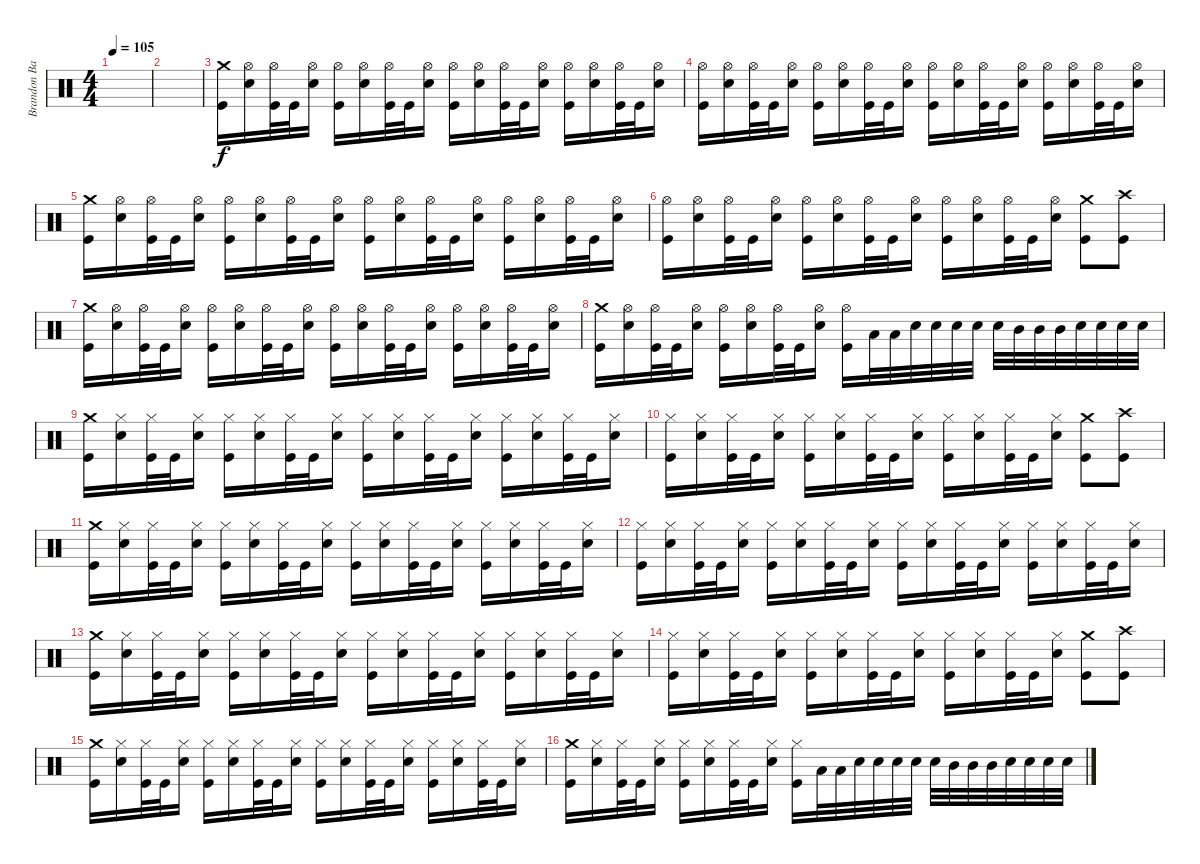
\track ("Brandon Barnes" "Brandon Ba") {instrument percussion}
\staff {score}
\articulation defaults
\ts (4 4)
\tempo 105
\clef neutral
\ks c
|
|
("Crash medium (hit)" "Kick (hit)").16 ("Hi-Hat (open)" "Electric Snare (hit)").16 ("Hi-Hat (open)" "Kick (hit)").32 "Kick (hit)".32 ("Hi-Hat (open)" "Electric Snare (hit)").16 ("Hi-Hat (open)" "Kick (hit)").16 ("Hi-Hat (open)" "Electric Snare (hit)").16 ("Hi-Hat (open)" "Kick (hit)").32 "Kick (hit)".32 ("Hi-Hat (open)" "Electric Snare (hit)").16 ("Hi-Hat (open)" "Kick (hit)").16 ("Hi-Hat (open)" "Electric Snare (hit)").16 ("Hi-Hat (open)" "Kick (hit)").32 "Kick (hit)".32 ("Hi-Hat (open)" "Electric Snare (hit)").16 ("Hi-Hat (open)" "Kick (hit)").16 ("Hi-Hat (open)" "Electric Snare (hit)").16 ("Hi-Hat (open)" "Kick (hit)").32 "Kick (hit)".32 ("Hi-Hat (open)" "Electric Snare (hit)").16 |
("Hi-Hat (open)" "Kick (hit)").16 ("Hi-Hat (open)" "Electric Snare (hit)").16 ("Hi-Hat (open)" "Kick (hit)").32 "Kick (hit)".32 ("Hi-Hat (open)" "Electric Snare (hit)").16 ("Hi-Hat (open)" "Kick (hit)").16 ("Hi-Hat (open)" "Electric Snare (hit)").16 ("Hi-Hat (open)" "Kick (hit)").32 "Kick (hit)".32 ("Hi-Hat (open)" "Electric Snare (hit)").16 ("Hi-Hat (open)" "Kick (hit)").16 ("Hi-Hat (open)" "Electric Snare (hit)").16 ("Hi-Hat (open)" "Kick (hit)").32 "Kick (hit)".32 ("Hi-Hat (open)" "Electric Snare (hit)").16 ("Hi-Hat (open)" "Kick (hit)").16 ("Hi-Hat (open)" "Electric Snare (hit)").16 ("Hi-Hat (open)" "Kick (hit)").32 "Kick (hit)".32 ("Hi-Hat (open)" "Electric Snare (hit)").16 |
("Crash medium (hit)" "Kick (hit)").16 ("Hi-Hat (open)" "Electric Snare (hit)").16 ("Hi-Hat (open)" "Kick (hit)").32 "Kick (hit)".32 ("Hi-Hat (open)" "Electric Snare (hit)").16 ("Hi-Hat (open)" "Kick (hit)").16 ("Hi-Hat (open)" "Electric Snare (hit)").16 ("Hi-Hat (open)" "Kick (hit)").32 "Kick (hit)".32 ("Hi-Hat (open)" "Electric Snare (hit)").16 ("Hi-Hat (open)" "Kick (hit)").16 ("Hi-Hat (open)" "Electric Snare (hit)").16 ("Hi-Hat (open)" "Kick (hit)").32 "Kick (hit)".32 ("Hi-Hat (open)" "Electric Snare (hit)").16 ("Hi-Hat (open)" "Kick (hit)").16 ("Hi-Hat (open)" "Electric Snare (hit)").16 ("Hi-Hat (open)" "Kick (hit)").32 "Kick (hit)".32 ("Hi-Hat (open)" "Electric Snare (hit)").16 |
("Hi-Hat (open)" "Kick (hit)").16 ("Hi-Hat (open)" "Electric Snare (hit)").16 ("Hi-Hat (open)" "Kick (hit)").32 "Kick (hit)".32 ("Hi-Hat (open)" "Electric Snare (hit)").16 ("Hi-Hat (open)" "Kick (hit)").16 ("Hi-Hat (open)" "Electric Snare (hit)").16 ("Hi-Hat (open)" "Kick (hit)").32 "Kick (hit)".32 ("Hi-Hat (open)" "Electric Snare (hit)").16 ("Hi-Hat (open)" "Kick (hit)").16 ("Hi-Hat (open)" "Electric Snare (hit)").16 ("Hi-Hat (open)" "Kick (hit)").32 "Kick (hit)".32 ("Hi-Hat (open)" "Electric Snare (hit)").16 ("Crash medium (hit)" "Kick (hit)").8 ("Crash high (hit)" "Kick (hit)").8 |
("Crash medium (hit)" "Kick (hit)").16 ("Hi-Hat (open)" "Electric Snare (hit)").16 ("Hi-Hat (open)" "Kick (hit)").32 "Kick (hit)".32 ("Hi-Hat (open)" "Electric Snare (hit)").16 ("Hi-Hat (open)" "Kick (hit)").16 ("Hi-Hat (open)" "Electric Snare (hit)").16 ("Hi-Hat (open)" "Kick (hit)").32 "Kick (hit)".32 ("Hi-Hat (open)" "Electric Snare (hit)").16 ("Hi-Hat (open)" "Kick (hit)").16 ("Hi-Hat (open)" "Electric Snare (hit)").16 ("Hi-Hat (open)" "Kick (hit)").32 "Kick (hit)".32 ("Hi-Hat (open)" "Electric Snare (hit)").16 ("Hi-Hat (open)" "Kick (hit)").16 ("Hi-Hat (open)" "Electric Snare (hit)").16 ("Hi-Hat (open)" "Kick (hit)").32 "Kick (hit)".32 ("Hi-Hat (open)" "Electric Snare (hit)").16 |
("Crash medium (hit)" "Kick (hit)").16 ("Hi-Hat (open)" "Electric Snare (hit)").16 ("Hi-Hat (open)" "Kick (hit)").32 "Kick (hit)".32 ("Hi-Hat (open)" "Electric Snare (hit)").16 ("Hi-Hat (open)" "Kick (hit)").16 ("Hi-Hat (open)" "Electric Snare (hit)").16 ("Hi-Hat (open)" "Kick (hit)").32 "Kick (hit)".32 ("Hi-Hat (open)" "Electric Snare (hit)").16 ("Hi-Hat (open)" "Kick (hit)").16 "Low Tom (hit)".32 "Low Tom (hit)".32 "Electric Snare (hit)".32 "Electric Snare (hit)".32 "Electric Snare (hit)".32 "Electric Snare (hit)".32 "Electric Snare (hit)".32 "Mid Tom (hit)".32 "Mid Tom (hit)".32 "Mid Tom (hit)".32 "Electric Snare (hit)".32 "Electric Snare (hit)".32 "Electric Snare (hit)".32 "Electric Snare (hit)".32 |
("Crash medium (hit)" "Kick (hit)").16 ("Hi-Hat (closed)" "Electric Snare (hit)").16 ("Hi-Hat (closed)" "Kick (hit)").32 "Kick (hit)".32 ("Hi-Hat (closed)" "Electric Snare (hit)").16 ("Hi-Hat (closed)" "Kick (hit)").16 ("Hi-Hat (closed)" "Electric Snare (hit)").16 ("Hi-Hat (closed)" "Kick (hit)").32 "Kick (hit)".32 ("Hi-Hat (closed)" "Electric Snare (hit)").16 ("Hi-Hat (closed)" "Kick (hit)").16 ("Hi-Hat (closed)" "Electric Snare (hit)").16 ("Hi-Hat (closed)" "Kick (hit)").32 "Kick (hit)".32 ("Hi-Hat (closed)" "Electric Snare (hit)").16 ("Hi-Hat (closed)" "Kick (hit)").16 ("Hi-Hat (closed)" "Electric Snare (hit)").16 ("Hi-Hat (closed)" "Kick (hit)").32 "Kick (hit)".32 ("Hi-Hat (closed)" "Electric Snare (hit)").16 |
("Hi-Hat (closed)" "Kick (hit)").16 ("Hi-Hat (closed)" "Electric Snare (hit)").16 ("Hi-Hat (closed)" "Kick (hit)").32 "Kick (hit)".32 ("Hi-Hat (closed)" "Electric Snare (hit)").16 ("Hi-Hat (closed)" "Kick (hit)").16 ("Hi-Hat (closed)" "Electric Snare (hit)").16 ("Hi-Hat (closed)" "Kick (hit)").32 "Kick (hit)".32 ("Hi-Hat (closed)" "Electric Snare (hit)").16 ("Hi-Hat (closed)" "Kick (hit)").16 ("Hi-Hat (closed)" "Electric Snare (hit)").16 ("Hi-Hat (closed)" "Kick (hit)").32 "Kick (hit)".32 ("Hi-Hat (closed)" "Electric Snare (hit)").16 ("Crash medium (hit)" "Kick (hit)").8 ("Crash high (hit)" "Kick (hit)").8 |
("Crash medium (hit)" "Kick (hit)").16 ("Hi-Hat (closed)" "Electric Snare (hit)").16 ("Hi-Hat (closed)" "Kick (hit)").32 "Kick (hit)".32 ("Hi-Hat (closed)" "Electric Snare (hit)").16 ("Hi-Hat (closed)" "Kick (hit)").16 ("Hi-Hat (closed)" "Electric Snare (hit)").16 ("Hi-Hat (closed)" "Kick (hit)").32 "Kick (hit)".32 ("Hi-Hat (closed)" "Electric Snare (hit)").16 ("Hi-Hat (closed)" "Kick (hit)").16 ("Hi-Hat (closed)" "Electric Snare (hit)").16 ("Hi-Hat (closed)" "Kick (hit)").32 "Kick (hit)".32 ("Hi-Hat (closed)" "Electric Snare (hit)").16 ("Hi-Hat (closed)" "Kick (hit)").16 ("Hi-Hat (closed)" "Electric Snare (hit)").16 ("Hi-Hat (closed)" "Kick (hit)").32 "Kick (hit)".32 ("Hi-Hat (closed)" "Electric Snare (hit)").16 |
("Hi-Hat (closed)" "Kick (hit)").16 ("Hi-Hat (closed)" "Electric Snare (hit)").16 ("Hi-Hat (closed)" "Kick (hit)").32 "Kick (hit)".32 ("Hi-Hat (closed)" "Electric Snare (hit)").16 ("Hi-Hat (closed)" "Kick (hit)").16 ("Hi-Hat (closed)" "Electric Snare (hit)").16 ("Hi-Hat (closed)" "Kick (hit)").32 "Kick (hit)".32 ("Hi-Hat (closed)" "Electric Snare (hit)").16 ("Hi-Hat (closed)" "Kick (hit)").16 ("Hi-Hat (closed)" "Electric Snare (hit)").16 ("Hi-Hat (closed)" "Kick (hit)").32 "Kick (hit)".32 ("Hi-Hat (closed)" "Electric Snare (hit)").16 ("Hi-Hat (closed)" "Kick (hit)").16 ("Hi-Hat (closed)" "Electric Snare (hit)").16 ("Hi-Hat (closed)" "Kick (hit)").32 "Kick (hit)".32 ("Hi-Hat (closed)" "Electric Snare (hit)").16 |
("Crash medium (hit)" "Kick (hit)").16 ("Hi-Hat (closed)" "Electric Snare (hit)").16 ("Hi-Hat (closed)" "Kick (hit)").32 "Kick (hit)".32 ("Hi-Hat (closed)" "Electric Snare (hit)").16 ("Hi-Hat (closed)" "Kick (hit)").16 ("Hi-Hat (closed)" "Electric Snare (hit)").16 ("Hi-Hat (closed)" "Kick (hit)").32 "Kick (hit)".32 ("Hi-Hat (closed)" "Electric Snare (hit)").16 ("Hi-Hat (closed)" "Kick (hit)").16 ("Hi-Hat (closed)" "Electric Snare (hit)").16 ("Hi-Hat (closed)" "Kick (hit)").32 "Kick (hit)".32 ("Hi-Hat (closed)" "Electric Snare (hit)").16 ("Hi-Hat (closed)" "Kick (hit)").16 ("Hi-Hat (closed)" "Electric Snare (hit)").16 ("Hi-Hat (closed)" "Kick (hit)").32 "Kick (hit)".32 ("Hi-Hat (closed)" "Electric Snare (hit)").16 |
("Hi-Hat (closed)" "Kick (hit)").16 ("Hi-Hat (closed)" "Electric Snare (hit)").16 ("Hi-Hat (closed)" "Kick (hit)").32 "Kick (hit)".32 ("Hi-Hat (closed)" "Electric Snare (hit)").16 ("Hi-Hat (closed)" "Kick (hit)").16 ("Hi-Hat (closed)" "Electric Snare (hit)").16 ("Hi-Hat (closed)" "Kick (hit)").32 "Kick (hit)".32 ("Hi-Hat (closed)" "Electric Snare (hit)").16 ("Hi-Hat (closed)" "Kick (hit)").16 ("Hi-Hat (closed)" "Electric Snare (hit)").16 ("Hi-Hat (closed)" "Kick (hit)").32 "Kick (hit)".32 ("Hi-Hat (closed)" "Electric Snare (hit)").16 ("Crash medium (hit)" "Kick (hit)").8 ("Crash high (hit)" "Kick (hit)").8 |
("Crash medium (hit)" "Kick (hit)").16 ("Hi-Hat (closed)" "Electric Snare (hit)").16 ("Hi-Hat (closed)" "Kick (hit)").32 "Kick (hit)".32 ("Hi-Hat (closed)" "Electric Snare (hit)").16 ("Hi-Hat (closed)" "Kick (hit)").16 ("Hi-Hat (closed)" "Electric Snare (hit)").16 ("Hi-Hat (closed)" "Kick (hit)").32 "Kick (hit)".32 ("Hi-Hat (closed)" "Electric Snare (hit)").16 ("Hi-Hat (closed)" "Kick (hit)").16 ("Hi-Hat (closed)" "Electric Snare (hit)").16 ("Hi-Hat (closed)" "Kick (hit)").32 "Kick (hit)".32 ("Hi-Hat (closed)" "Electric Snare (hit)").16 ("Hi-Hat (closed)" "Kick (hit)").16 ("Hi-Hat (closed)" "Electric Snare (hit)").16 ("Hi-Hat (closed)" "Kick (hit)").32 "Kick (hit)".32 ("Hi-Hat (closed)" "Electric Snare (hit)").16 |
("Crash medium (hit)" "Kick (hit)").16 ("Hi-Hat (closed)" "Electric Snare (hit)").16 ("Hi-Hat (closed)" "Kick (hit)").32 "Kick (hit)".32 ("Hi-Hat (closed)" "Electric Snare (hit)").16 ("Hi-Hat (closed)" "Kick (hit)").16 ("Hi-Hat (closed)" "Electric Snare (hit)").16 ("Hi-Hat (closed)" "Kick (hit)").32 "Kick (hit)".32 ("Hi-Hat (closed)" "Electric Snare (hit)").16 ("Hi-Hat (closed)" "Kick (hit)").16 "Low Tom (hit)".32 "Low Tom (hit)".32 "Electric Snare (hit)".32 "Electric Snare (hit)".32 "Electric Snare (hit)".32 "Electric Snare (hit)".32 "Electric Snare (hit)".32 "Mid Tom (hit)".32 "Mid Tom (hit)".32 "Mid Tom (hit)".32 "Electric Snare (hit)".32 "Electric Snare (hit)".32 "Electric Snare (hit)".32 "Electric Snare (hit)".32
